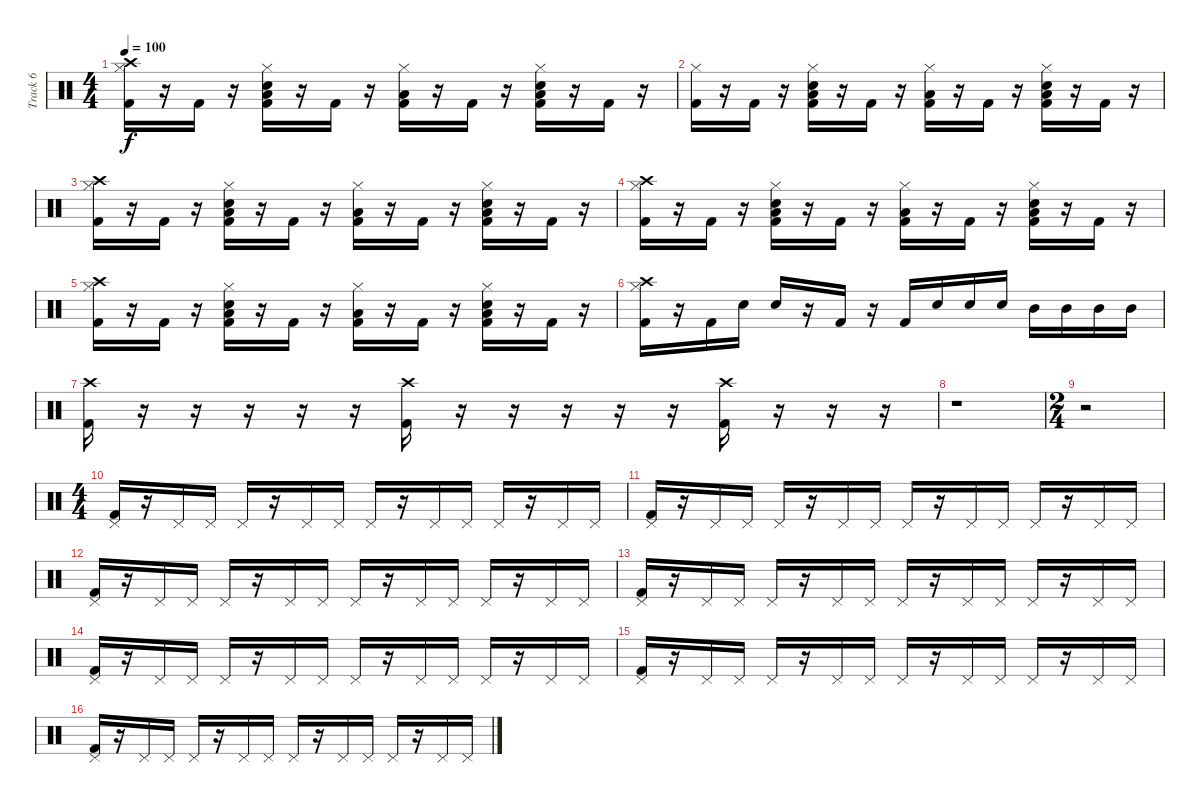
\track ("Track 6" "Track 6") {instrument percussion}
\staff {score}
\articulation defaults
\ts (4 4)
\tempo 100
\clef neutral
\ks c
("Hi-Hat (closed)" "Kick (hit) 2" "Crash high (hit)").16{dy f} r.16 "Kick (hit) 2".16 r.16 ("Hi-Hat (closed)" "Kick (hit) 2" "Low Floor Tom (hit)" "Snare (hit) 2").16 r.16 "Kick (hit) 2".16 r.16 ("Hi-Hat (closed)" "Kick (hit) 2" "Low Floor Tom (hit)").16 r.16 "Kick (hit) 2".16 r.16 ("Hi-Hat (closed)" "Kick (hit) 2" "Low Floor Tom (hit)" "Snare (hit) 2").16 r.16 "Kick (hit) 2".16 r.16 |
("Hi-Hat (closed)" "Kick (hit) 2").16 r.16 "Kick (hit) 2".16 r.16 ("Hi-Hat (closed)" "Kick (hit) 2" "Low Floor Tom (hit)" "Snare (hit) 2").16 r.16 "Kick (hit) 2".16 r.16 ("Hi-Hat (closed)" "Kick (hit) 2" "Low Floor Tom (hit)").16 r.16 "Kick (hit) 2".16 r.16 ("Hi-Hat (closed)" "Kick (hit) 2" "Low Floor Tom (hit)" "Snare (hit) 2").16 r.16 "Kick (hit) 2".16 r.16 |
("Hi-Hat (closed)" "Kick (hit) 2" "Crash high (hit)").16 r.16 "Kick (hit) 2".16 r.16 ("Hi-Hat (closed)" "Kick (hit) 2" "Low Floor Tom (hit)" "Snare (hit) 2").16 r.16 "Kick (hit) 2".16 r.16 ("Hi-Hat (closed)" "Kick (hit) 2" "Low Floor Tom (hit)").16 r.16 "Kick (hit) 2".16 r.16 ("Hi-Hat (closed)" "Kick (hit) 2" "Low Floor Tom (hit)" "Snare (hit) 2").16 r.16 "Kick (hit) 2".16 r.16 |
("Hi-Hat (closed)" "Kick (hit) 2" "Crash high (hit)").16 r.16 "Kick (hit) 2".16 r.16 ("Hi-Hat (closed)" "Kick (hit) 2" "Low Floor Tom (hit)" "Snare (hit) 2").16 r.16 "Kick (hit) 2".16 r.16 ("Hi-Hat (closed)" "Kick (hit) 2" "Low Floor Tom (hit)").16 r.16 "Kick (hit) 2".16 r.16 ("Hi-Hat (closed)" "Kick (hit) 2" "Low Floor Tom (hit)" "Snare (hit) 2").16 r.16 "Kick (hit) 2".16 r.16 |
("Hi-Hat (closed)" "Kick (hit) 2" "Crash high (hit)").16 r.16 "Kick (hit) 2".16 r.16 ("Hi-Hat (closed)" "Kick (hit) 2" "Low Floor Tom (hit)" "Snare (hit) 2").16 r.16 "Kick (hit) 2".16 r.16 ("Hi-Hat (closed)" "Kick (hit) 2" "Low Floor Tom (hit)").16 r.16 "Kick (hit) 2".16 r.16 ("Hi-Hat (closed)" "Kick (hit) 2" "Low Floor Tom (hit)" "Snare (hit) 2").16 r.16 "Kick (hit) 2".16 r.16 |
("Hi-Hat (closed)" "Kick (hit) 2" "Crash high (hit)").16 r.16 "Kick (hit) 2".16 "Electric Snare (hit)".16 "Electric Snare (hit)".16 r.16 "Kick (hit) 2".16 r.16 "Kick (hit) 2".16 "Electric Snare (hit)".16 "Electric Snare (hit)".16 "Electric Snare (hit)".16 "Mid Tom (hit)".16 "Mid Tom (hit)".16 "Mid Tom (hit)".16 "Mid Tom (hit)".16 |
("Crash high (hit)" "Kick (hit) 2").16 r.16 r.16 r.16 r.16 r.16 ("Crash high (hit)" "Kick (hit) 2").16 r.16 r.16 r.16 r.16 r.16 ("Crash high (hit)" "Kick (hit) 2").16 r.16 r.16 r.16 |
r.1 |
\ts (2 4)
r.2 |
\ts (4 4)
("Pedal Hi-Hat (hit)" "Kick (hit) 2").16 r.16 "Pedal Hi-Hat (hit)".16 "Pedal Hi-Hat (hit)".16 "Pedal Hi-Hat (hit)".16 r.16 "Pedal Hi-Hat (hit)".16 "Pedal Hi-Hat (hit)".16 "Pedal Hi-Hat (hit)".16 r.16 "Pedal Hi-Hat (hit)".16 "Pedal Hi-Hat (hit)".16 "Pedal Hi-Hat (hit)".16 r.16 "Pedal Hi-Hat (hit)".16 "Pedal Hi-Hat (hit)".16 |
("Pedal Hi-Hat (hit)" "Kick (hit) 2").16 r.16 "Pedal Hi-Hat (hit)".16 "Pedal Hi-Hat (hit)".16 "Pedal Hi-Hat (hit)".16 r.16 "Pedal Hi-Hat (hit)".16 "Pedal Hi-Hat (hit)".16 "Pedal Hi-Hat (hit)".16 r.16 "Pedal Hi-Hat (hit)".16 "Pedal Hi-Hat (hit)".16 "Pedal Hi-Hat (hit)".16 r.16 "Pedal Hi-Hat (hit)".16 "Pedal Hi-Hat (hit)".16 |
("Pedal Hi-Hat (hit)" "Kick (hit) 2").16 r.16 "Pedal Hi-Hat (hit)".16 "Pedal Hi-Hat (hit)".16 "Pedal Hi-Hat (hit)".16 r.16 "Pedal Hi-Hat (hit)".16 "Pedal Hi-Hat (hit)".16 "Pedal Hi-Hat (hit)".16 r.16 "Pedal Hi-Hat (hit)".16 "Pedal Hi-Hat (hit)".16 "Pedal Hi-Hat (hit)".16 r.16 "Pedal Hi-Hat (hit)".16 "Pedal Hi-Hat (hit)".16 |
("Pedal Hi-Hat (hit)" "Kick (hit) 2").16 r.16 "Pedal Hi-Hat (hit)".16 "Pedal Hi-Hat (hit)".16 "Pedal Hi-Hat (hit)".16 r.16 "Pedal Hi-Hat (hit)".16 "Pedal Hi-Hat (hit)".16 "Pedal Hi-Hat (hit)".16 r.16 "Pedal Hi-Hat (hit)".16 "Pedal Hi-Hat (hit)".16 "Pedal Hi-Hat (hit)".16 r.16 "Pedal Hi-Hat (hit)".16 "Pedal Hi-Hat (hit)".16 |
("Pedal Hi-Hat (hit)" "Kick (hit) 2").16 r.16 "Pedal Hi-Hat (hit)".16 "Pedal Hi-Hat (hit)".16 "Pedal Hi-Hat (hit)".16 r.16 "Pedal Hi-Hat (hit)".16 "Pedal Hi-Hat (hit)".16 "Pedal Hi-Hat (hit)".16 r.16 "Pedal Hi-Hat (hit)".16 "Pedal Hi-Hat (hit)".16 "Pedal Hi-Hat (hit)".16 r.16 "Pedal Hi-Hat (hit)".16 "Pedal Hi-Hat (hit)".16 |
("Pedal Hi-Hat (hit)" "Kick (hit) 2").16 r.16 "Pedal Hi-Hat (hit)".16 "Pedal Hi-Hat (hit)".16 "Pedal Hi-Hat (hit)".16 r.16 "Pedal Hi-Hat (hit)".16 "Pedal Hi-Hat (hit)".16 "Pedal Hi-Hat (hit)".16 r.16 "Pedal Hi-Hat (hit)".16 "Pedal Hi-Hat (hit)".16 "Pedal Hi-Hat (hit)".16 r.16 "Pedal Hi-Hat (hit)".16 "Pedal Hi-Hat (hit)".16 |
("Pedal Hi-Hat (hit)" "Kick (hit) 2").16 r.16 "Pedal Hi-Hat (hit)".16 "Pedal Hi-Hat (hit)".16 "Pedal Hi-Hat (hit)".16 r.16 "Pedal Hi-Hat (hit)".16 "Pedal Hi-Hat (hit)".16 "Pedal Hi-Hat (hit)".16 r.16 "Pedal Hi-Hat (hit)".16 "Pedal Hi-Hat (hit)".16 "Pedal Hi-Hat (hit)".16 r.16 "Pedal Hi-Hat (hit)".16 "Pedal Hi-Hat (hit)".16
